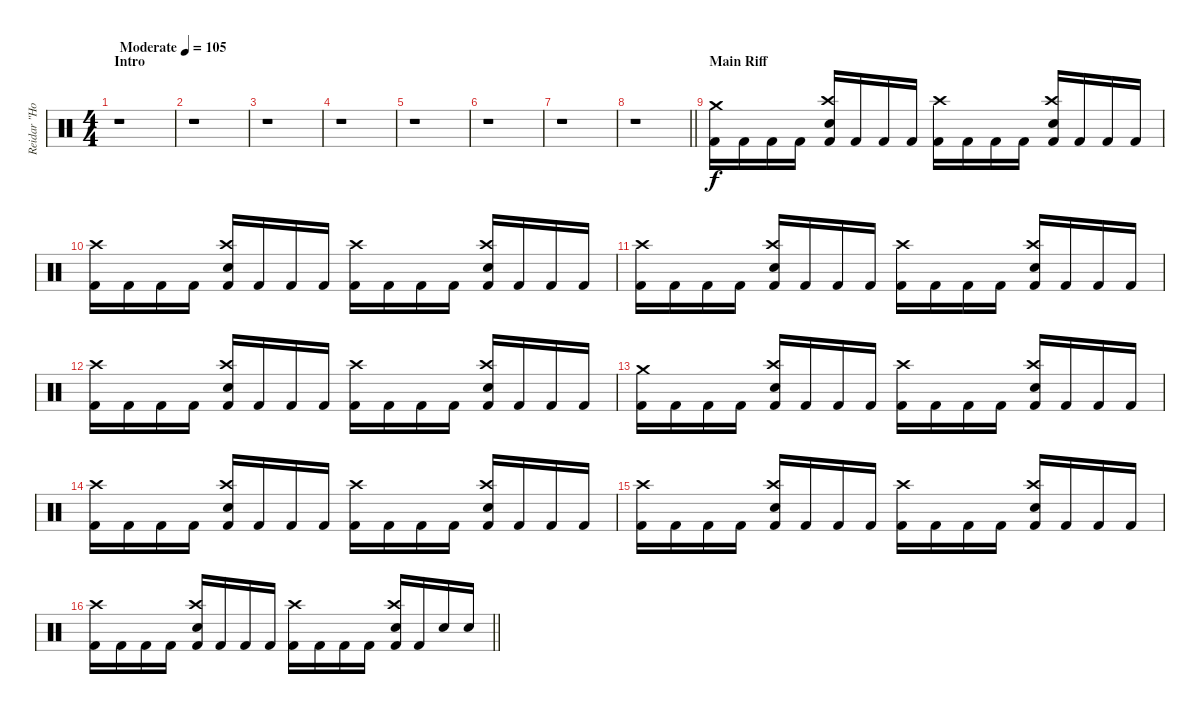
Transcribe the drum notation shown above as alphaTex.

\track ("Reidar \"Horgh\" Horghagen " "Reidar \"Ho") {instrument percussion}
\staff {score}
\articulation defaults
\ts (4 4)
\section ("" "Intro")
\tempo (105 "Moderate")
\clef neutral
\ks c
r.1{dy f} |
r.1 |
r.1 |
r.1 |
r.1 |
r.1 |
r.1 |
\barLineRight lightlight
r.1 |
\section ("" "Main Riff")
("Crash medium (hit)" "Kick (hit) 2").16 "Kick (hit) 2".16 "Kick (hit) 2".16 "Kick (hit) 2".16 ("Crash high (hit)" "Snare (hit) 2" "Kick (hit) 2").16 "Kick (hit) 2".16 "Kick (hit) 2".16 "Kick (hit) 2".16 ("Crash high (hit)" "Kick (hit) 2").16 "Kick (hit) 2".16 "Kick (hit) 2".16 "Kick (hit) 2".16 ("Crash high (hit)" "Snare (hit) 2" "Kick (hit) 2").16 "Kick (hit) 2".16 "Kick (hit) 2".16 "Kick (hit) 2".16 |
("Crash high (hit)" "Kick (hit) 2").16 "Kick (hit) 2".16 "Kick (hit) 2".16 "Kick (hit) 2".16 ("Crash high (hit)" "Snare (hit) 2" "Kick (hit) 2").16 "Kick (hit) 2".16 "Kick (hit) 2".16 "Kick (hit) 2".16 ("Crash high (hit)" "Kick (hit) 2").16 "Kick (hit) 2".16 "Kick (hit) 2".16 "Kick (hit) 2".16 ("Crash high (hit)" "Snare (hit) 2" "Kick (hit) 2").16 "Kick (hit) 2".16 "Kick (hit) 2".16 "Kick (hit) 2".16 |
("Crash high (hit)" "Kick (hit) 2").16 "Kick (hit) 2".16 "Kick (hit) 2".16 "Kick (hit) 2".16 ("Crash high (hit)" "Snare (hit) 2" "Kick (hit) 2").16 "Kick (hit) 2".16 "Kick (hit) 2".16 "Kick (hit) 2".16 ("Crash high (hit)" "Kick (hit) 2").16 "Kick (hit) 2".16 "Kick (hit) 2".16 "Kick (hit) 2".16 ("Crash high (hit)" "Snare (hit) 2" "Kick (hit) 2").16 "Kick (hit) 2".16 "Kick (hit) 2".16 "Kick (hit) 2".16 |
("Crash high (hit)" "Kick (hit) 2").16 "Kick (hit) 2".16 "Kick (hit) 2".16 "Kick (hit) 2".16 ("Crash high (hit)" "Snare (hit) 2" "Kick (hit) 2").16 "Kick (hit) 2".16 "Kick (hit) 2".16 "Kick (hit) 2".16 ("Crash high (hit)" "Kick (hit) 2").16 "Kick (hit) 2".16 "Kick (hit) 2".16 "Kick (hit) 2".16 ("Crash high (hit)" "Snare (hit) 2" "Kick (hit) 2").16 "Kick (hit) 2".16 "Kick (hit) 2".16 "Kick (hit) 2".16 |
("Crash medium (hit)" "Kick (hit) 2").16 "Kick (hit) 2".16 "Kick (hit) 2".16 "Kick (hit) 2".16 ("Crash high (hit)" "Snare (hit) 2" "Kick (hit) 2").16 "Kick (hit) 2".16 "Kick (hit) 2".16 "Kick (hit) 2".16 ("Crash high (hit)" "Kick (hit) 2").16 "Kick (hit) 2".16 "Kick (hit) 2".16 "Kick (hit) 2".16 ("Crash high (hit)" "Snare (hit) 2" "Kick (hit) 2").16 "Kick (hit) 2".16 "Kick (hit) 2".16 "Kick (hit) 2".16 |
("Crash high (hit)" "Kick (hit) 2").16 "Kick (hit) 2".16 "Kick (hit) 2".16 "Kick (hit) 2".16 ("Crash high (hit)" "Snare (hit) 2" "Kick (hit) 2").16 "Kick (hit) 2".16 "Kick (hit) 2".16 "Kick (hit) 2".16 ("Crash high (hit)" "Kick (hit) 2").16 "Kick (hit) 2".16 "Kick (hit) 2".16 "Kick (hit) 2".16 ("Crash high (hit)" "Snare (hit) 2" "Kick (hit) 2").16 "Kick (hit) 2".16 "Kick (hit) 2".16 "Kick (hit) 2".16 |
("Crash high (hit)" "Kick (hit) 2").16 "Kick (hit) 2".16 "Kick (hit) 2".16 "Kick (hit) 2".16 ("Crash high (hit)" "Snare (hit) 2" "Kick (hit) 2").16 "Kick (hit) 2".16 "Kick (hit) 2".16 "Kick (hit) 2".16 ("Crash high (hit)" "Kick (hit) 2").16 "Kick (hit) 2".16 "Kick (hit) 2".16 "Kick (hit) 2".16 ("Crash high (hit)" "Snare (hit) 2" "Kick (hit) 2").16 "Kick (hit) 2".16 "Kick (hit) 2".16 "Kick (hit) 2".16 |
\barLineRight lightlight
("Crash high (hit)" "Kick (hit) 2").16 "Kick (hit) 2".16 "Kick (hit) 2".16 "Kick (hit) 2".16 ("Crash high (hit)" "Snare (hit) 2" "Kick (hit) 2").16 "Kick (hit) 2".16 "Kick (hit) 2".16 "Kick (hit) 2".16 ("Crash high (hit)" "Kick (hit) 2").16 "Kick (hit) 2".16 "Kick (hit) 2".16 "Kick (hit) 2".16 ("Crash high (hit)" "Snare (hit) 2" "Kick (hit) 2").16 "Kick (hit) 2".16 "Snare (hit) 2".16 "Snare (hit) 2".16
